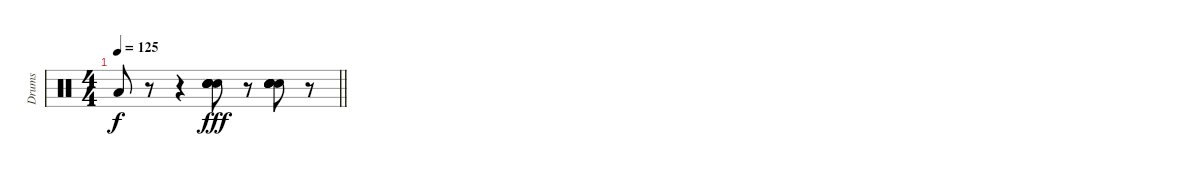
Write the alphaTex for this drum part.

\track ("Drums" "Drums") {instrument percussion}
\staff {score}
\articulation defaults
\ts (4 4)
\tempo 125
\clef neutral
\barLineRight lightlight
\ks c "Low Tom (hit)".8{dy f}
r.8 r.4 ("Hand Clap (hit)" "Hand Clap (hit)" "Hand Clap (hit)" "Hand Clap (hit)" "Hand Clap (hit)").8{dy fff} r.8 ("Hand Clap (hit)" "Hand Clap (hit)" "Hand Clap (hit)" "Hand Clap (hit)" "Hand Clap (hit)").8 r.8
